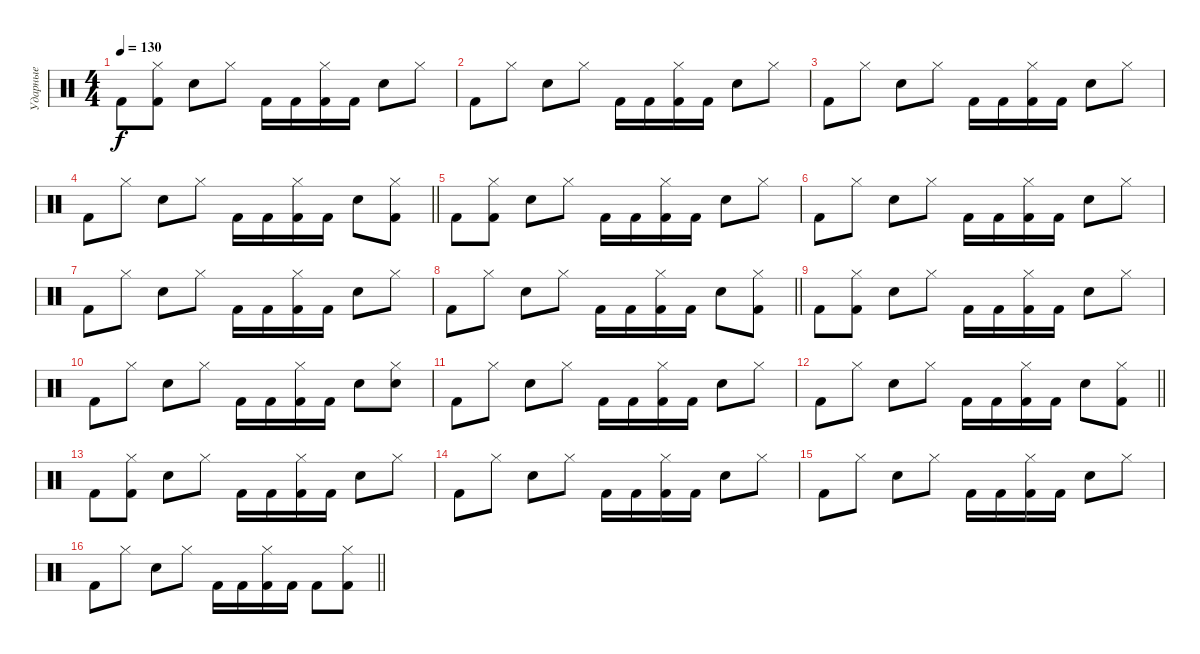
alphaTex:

\track ("Ударные" "Ударные") {instrument percussion}
\staff {score}
\articulation defaults
\ts (4 4)
\tempo 130
\clef neutral
\ks c "Kick (hit) 2".8{dy f}
("Hi-Hat (closed)" "Kick (hit) 2").8 "Electric Snare (hit)".8 "Hi-Hat (closed)".8 "Kick (hit) 2".16 "Kick (hit) 2".16 ("Hi-Hat (closed)" "Kick (hit) 2").16 "Kick (hit) 2".16 "Electric Snare (hit)".8 "Hi-Hat (closed)".8 |
"Kick (hit) 2".8 "Hi-Hat (closed)".8 "Electric Snare (hit)".8 "Hi-Hat (closed)".8 "Kick (hit) 2".16 "Kick (hit) 2".16 ("Hi-Hat (closed)" "Kick (hit) 2").16 "Kick (hit) 2".16 "Electric Snare (hit)".8 "Hi-Hat (closed)".8 |
"Kick (hit) 2".8 "Hi-Hat (closed)".8 "Electric Snare (hit)".8 "Hi-Hat (closed)".8 "Kick (hit) 2".16 "Kick (hit) 2".16 ("Hi-Hat (closed)" "Kick (hit) 2").16 "Kick (hit) 2".16 "Electric Snare (hit)".8 "Hi-Hat (closed)".8 |
\barLineRight lightlight "Kick (hit) 2".8 "Hi-Hat (closed)".8 "Electric Snare (hit)".8 "Hi-Hat (closed)".8 "Kick (hit) 2".16 "Kick (hit) 2".16
("Hi-Hat (closed)" "Kick (hit) 2").16 "Kick (hit) 2".16 "Electric Snare (hit)".8 ("Hi-Hat (closed)" "Kick (hit) 2").8 |
"Kick (hit) 2".8 ("Hi-Hat (closed)" "Kick (hit) 2").8 "Electric Snare (hit)".8 "Hi-Hat (closed)".8 "Kick (hit) 2".16 "Kick (hit) 2".16 ("Hi-Hat (closed)" "Kick (hit) 2").16 "Kick (hit) 2".16 "Electric Snare (hit)".8 "Hi-Hat (closed)".8 |
"Kick (hit) 2".8 "Hi-Hat (closed)".8 "Electric Snare (hit)".8 "Hi-Hat (closed)".8 "Kick (hit) 2".16 "Kick (hit) 2".16 ("Hi-Hat (closed)" "Kick (hit) 2").16 "Kick (hit) 2".16 "Electric Snare (hit)".8 "Hi-Hat (closed)".8 |
"Kick (hit) 2".8 "Hi-Hat (closed)".8 "Electric Snare (hit)".8 "Hi-Hat (closed)".8 "Kick (hit) 2".16 "Kick (hit) 2".16 ("Hi-Hat (closed)" "Kick (hit) 2").16 "Kick (hit) 2".16 "Electric Snare (hit)".8 "Hi-Hat (closed)".8 |
\barLineRight lightlight "Kick (hit) 2".8 "Hi-Hat (closed)".8 "Electric Snare (hit)".8 "Hi-Hat (closed)".8 "Kick (hit) 2".16 "Kick (hit) 2".16
("Hi-Hat (closed)" "Kick (hit) 2").16 "Kick (hit) 2".16 "Electric Snare (hit)".8 ("Hi-Hat (closed)" "Kick (hit) 2").8 |
"Kick (hit) 2".8 ("Hi-Hat (closed)" "Kick (hit) 2").8 "Electric Snare (hit)".8 "Hi-Hat (closed)".8 "Kick (hit) 2".16 "Kick (hit) 2".16 ("Hi-Hat (closed)" "Kick (hit) 2").16 "Kick (hit) 2".16 "Electric Snare (hit)".8 "Hi-Hat (closed)".8 |
"Kick (hit) 2".8 "Hi-Hat (closed)".8 "Electric Snare (hit)".8 "Hi-Hat (closed)".8 "Kick (hit) 2".16 "Kick (hit) 2".16 ("Hi-Hat (closed)" "Kick (hit) 2").16 "Kick (hit) 2".16 "Electric Snare (hit)".8 ("Hi-Hat (closed)" "Electric Snare (hit)").8 |
"Kick (hit) 2".8 "Hi-Hat (closed)".8 "Electric Snare (hit)".8 "Hi-Hat (closed)".8 "Kick (hit) 2".16 "Kick (hit) 2".16 ("Hi-Hat (closed)" "Kick (hit) 2").16 "Kick (hit) 2".16 "Electric Snare (hit)".8 "Hi-Hat (closed)".8 |
\barLineRight lightlight "Kick (hit) 2".8 "Hi-Hat (closed)".8 "Electric Snare (hit)".8 "Hi-Hat (closed)".8 "Kick (hit) 2".16 "Kick (hit) 2".16
("Hi-Hat (closed)" "Kick (hit) 2").16 "Kick (hit) 2".16 "Electric Snare (hit)".8 ("Hi-Hat (closed)" "Kick (hit) 2").8 |
"Kick (hit) 2".8 ("Hi-Hat (closed)" "Kick (hit) 2").8 "Electric Snare (hit)".8 "Hi-Hat (closed)".8 "Kick (hit) 2".16 "Kick (hit) 2".16 ("Hi-Hat (closed)" "Kick (hit) 2").16 "Kick (hit) 2".16 "Electric Snare (hit)".8 "Hi-Hat (closed)".8 |
"Kick (hit) 2".8 "Hi-Hat (closed)".8 "Electric Snare (hit)".8 "Hi-Hat (closed)".8 "Kick (hit) 2".16 "Kick (hit) 2".16 ("Hi-Hat (closed)" "Kick (hit) 2").16 "Kick (hit) 2".16 "Electric Snare (hit)".8 "Hi-Hat (closed)".8 |
"Kick (hit) 2".8 "Hi-Hat (closed)".8 "Electric Snare (hit)".8 "Hi-Hat (closed)".8 "Kick (hit) 2".16 "Kick (hit) 2".16 ("Hi-Hat (closed)" "Kick (hit) 2").16 "Kick (hit) 2".16 "Electric Snare (hit)".8 "Hi-Hat (closed)".8 |
\barLineRight lightlight "Kick (hit) 2".8 "Hi-Hat (closed)".8 "Electric Snare (hit)".8 "Hi-Hat (closed)".8 "Kick (hit) 2".16 "Kick (hit) 2".16
("Hi-Hat (closed)" "Kick (hit) 2").16 "Kick (hit) 2".16 "Kick (hit) 2".8 ("Hi-Hat (closed)" "Kick (hit) 2").8
